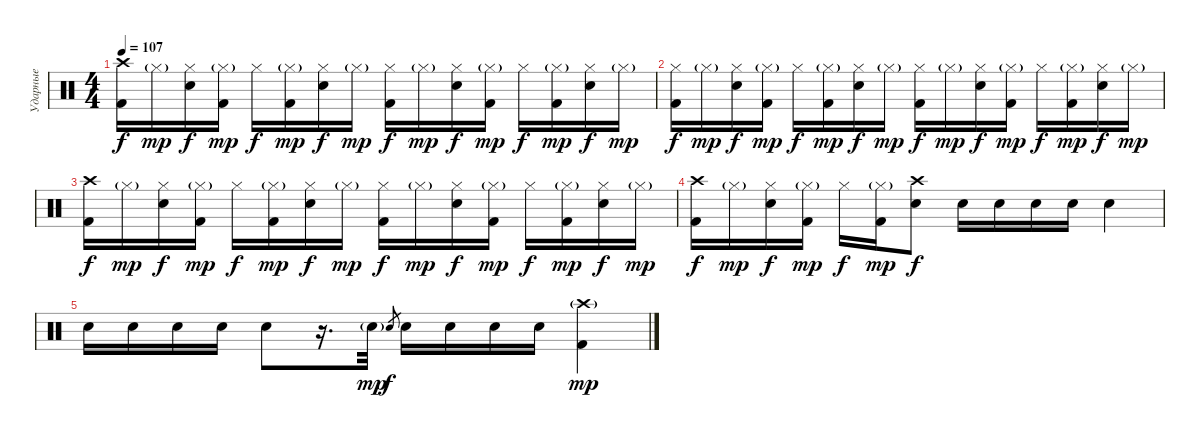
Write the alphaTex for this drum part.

\track ("Ударные" "Ударные") {instrument percussion}
\staff {score}
\articulation defaults
\ts (4 4)
\tempo 107
\clef neutral
\ks c
("Kick (hit) 2" "Crash high (hit)").16{dy f} "Hi-Hat (closed)"{g}.16{dy mp} ("Electric Snare (hit)" "Hi-Hat (closed)").16{dy f} ("Kick (hit) 2" "Hi-Hat (closed)"{g}).16{dy mp} "Hi-Hat (closed)".16{dy f} ("Kick (hit) 2" "Hi-Hat (closed)"{g}).16{dy mp} ("Electric Snare (hit)" "Hi-Hat (closed)").16{dy f} "Hi-Hat (closed)"{g}.16{dy mp} ("Kick (hit) 2" "Hi-Hat (closed)").16{dy f} "Hi-Hat (closed)"{g}.16{dy mp} ("Electric Snare (hit)" "Hi-Hat (closed)").16{dy f} ("Kick (hit) 2" "Hi-Hat (closed)"{g}).16{dy mp} "Hi-Hat (closed)".16{dy f} ("Kick (hit) 2" "Hi-Hat (closed)"{g}).16{dy mp} ("Electric Snare (hit)" "Hi-Hat (closed)").16{dy f} "Hi-Hat (closed)"{g}.16{dy mp} |
("Kick (hit) 2" "Hi-Hat (closed)").16{dy f} "Hi-Hat (closed)"{g}.16{dy mp} ("Electric Snare (hit)" "Hi-Hat (closed)").16{dy f} ("Kick (hit) 2" "Hi-Hat (closed)"{g}).16{dy mp} "Hi-Hat (closed)".16{dy f} ("Kick (hit) 2" "Hi-Hat (closed)"{g}).16{dy mp} ("Electric Snare (hit)" "Hi-Hat (closed)").16{dy f} "Hi-Hat (closed)"{g}.16{dy mp} ("Kick (hit) 2" "Hi-Hat (closed)").16{dy f} "Hi-Hat (closed)"{g}.16{dy mp} ("Electric Snare (hit)" "Hi-Hat (closed)").16{dy f} ("Kick (hit) 2" "Hi-Hat (closed)"{g}).16{dy mp} "Hi-Hat (closed)".16{dy f} ("Kick (hit) 2" "Hi-Hat (closed)"{g}).16{dy mp} ("Electric Snare (hit)" "Hi-Hat (closed)").16{dy f} "Hi-Hat (closed)"{g}.16{dy mp} |
("Kick (hit) 2" "Crash high (hit)").16{dy f} "Hi-Hat (closed)"{g}.16{dy mp} ("Electric Snare (hit)" "Hi-Hat (closed)").16{dy f} ("Kick (hit) 2" "Hi-Hat (closed)"{g}).16{dy mp} "Hi-Hat (closed)".16{dy f} ("Kick (hit) 2" "Hi-Hat (closed)"{g}).16{dy mp} ("Electric Snare (hit)" "Hi-Hat (closed)").16{dy f} "Hi-Hat (closed)"{g}.16{dy mp} ("Kick (hit) 2" "Hi-Hat (closed)").16{dy f} "Hi-Hat (closed)"{g}.16{dy mp} ("Electric Snare (hit)" "Hi-Hat (closed)").16{dy f} ("Kick (hit) 2" "Hi-Hat (closed)"{g}).16{dy mp} "Hi-Hat (closed)".16{dy f} ("Kick (hit) 2" "Hi-Hat (closed)"{g}).16{dy mp} ("Electric Snare (hit)" "Hi-Hat (closed)").16{dy f} "Hi-Hat (closed)"{g}.16{dy mp} |
("Kick (hit) 2" "Crash high (hit)").16{dy f} "Hi-Hat (closed)"{g}.16{dy mp} ("Electric Snare (hit)" "Hi-Hat (closed)").16{dy f} ("Kick (hit) 2" "Hi-Hat (closed)"{g}).16{dy mp} "Hi-Hat (closed)".16{dy f} ("Kick (hit) 2" "Hi-Hat (closed)"{g}).16{dy mp} ("Electric Snare (hit)" "Crash high (hit)").8{dy f} "Electric Snare (hit)".16 "Electric Snare (hit)".16 "Electric Snare (hit)".16 "Electric Snare (hit)".16 "Electric Snare (hit)".4 |
"Electric Snare (hit)".16 "Electric Snare (hit)".16 "Electric Snare (hit)".16 "Electric Snare (hit)".16 "Electric Snare (hit)".8 r.16{d} "Electric Snare (hit)"{g}.32{dy mp} "Electric Snare (hit)".8{gr dy f} "Electric Snare (hit)".16 "Electric Snare (hit)".16 "Electric Snare (hit)".16 "Electric Snare (hit)".16 ("Kick (hit) 2" "Crash high (hit)"{g}).4{dy mp}
